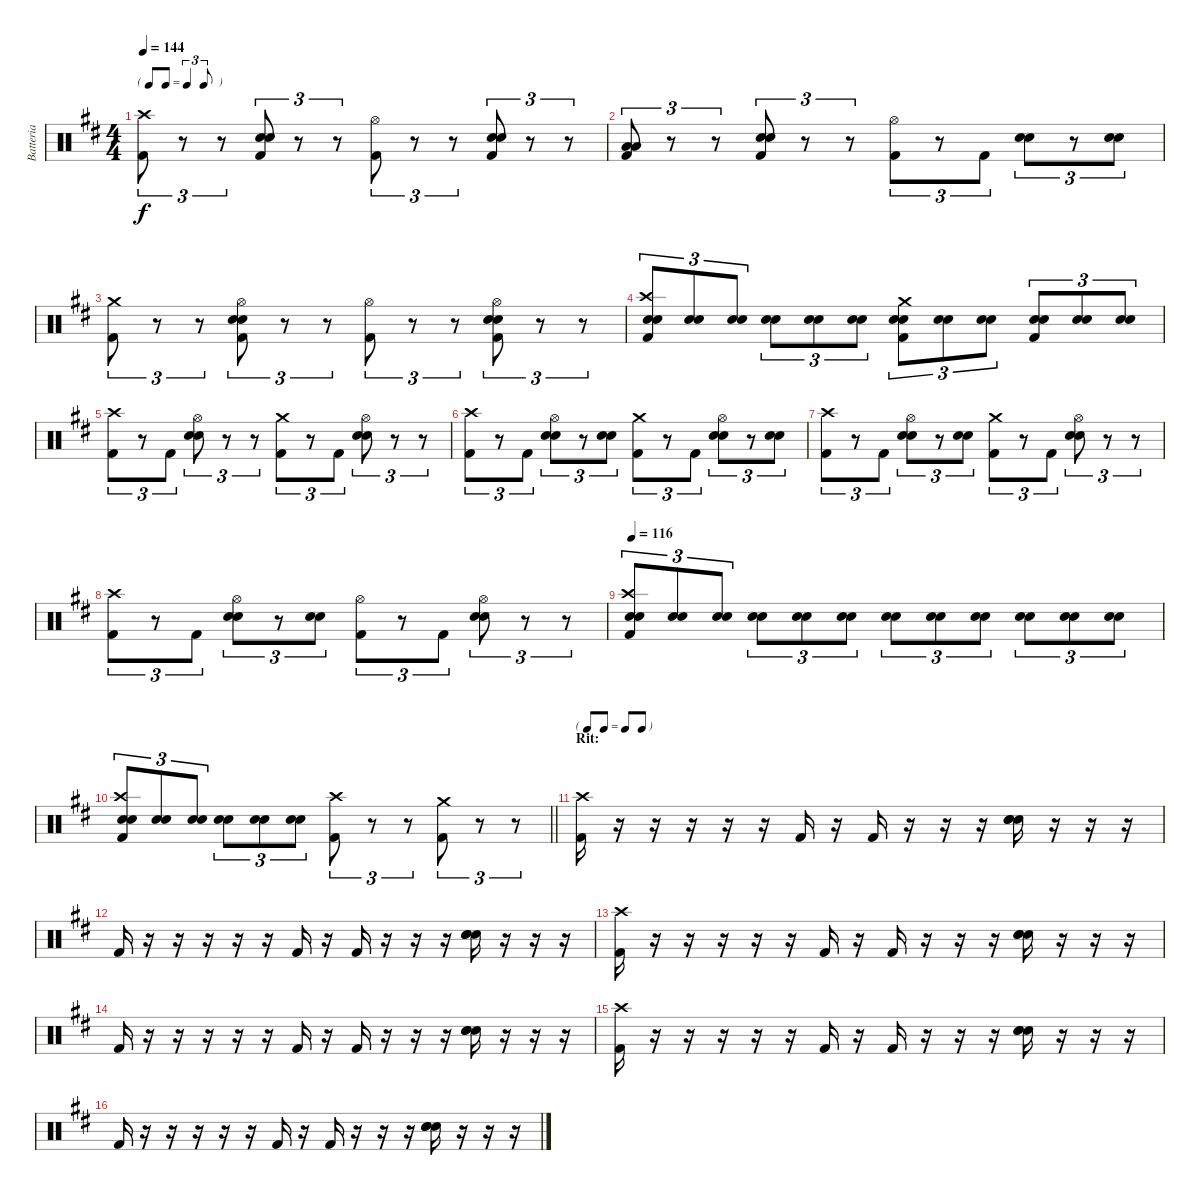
\track ("Batteria" "Batteria") {instrument percussion}
\staff {score}
\articulation defaults
\ts (4 4)
\tf triplet8th
\tempo 144
\clef neutral
\ks d
("Kick (hit) 2" "Crash high (hit)").8{tu (3 2) dy f} r.8{tu (3 2)} r.8{tu (3 2)} ("Kick (hit) 2" "Snare (hit) 2" "Snare (hit) 2").8{tu (3 2)} r.8{tu (3 2)} r.8{tu (3 2)} ("Kick (hit) 2" "Hi-Hat (open)").8{tu (3 2)} r.8{tu (3 2)} r.8{tu (3 2)} ("Kick (hit) 2" "Snare (hit) 2" "Snare (hit) 2").8{tu (3 2)} r.8{tu (3 2)} r.8{tu (3 2)} |
("Kick (hit) 2" "Low Floor Tom (hit)" "Low Floor Tom (hit)").8{tu (3 2)} r.8{tu (3 2)} r.8{tu (3 2)} ("Kick (hit) 2" "Snare (hit) 2" "Snare (hit) 2").8{tu (3 2)} r.8{tu (3 2)} r.8{tu (3 2)} ("Kick (hit) 2" "Hi-Hat (open)").8{tu (3 2)} r.8{tu (3 2)} "Kick (hit) 2".8{tu (3 2)} ("Snare (hit) 2" "Snare (hit) 2").8{tu (3 2)} r.8{tu (3 2)} ("Snare (hit) 2" "Snare (hit) 2").8{tu (3 2)} |
("Kick (hit) 2" "Crash medium (hit)").8{tu (3 2)} r.8{tu (3 2)} r.8{tu (3 2)} ("Kick (hit) 2" "Snare (hit) 2" "Snare (hit) 2" "Hi-Hat (open)").8{tu (3 2)} r.8{tu (3 2)} r.8{tu (3 2)} ("Kick (hit) 2" "Hi-Hat (open)").8{tu (3 2)} r.8{tu (3 2)} r.8{tu (3 2)} ("Kick (hit) 2" "Snare (hit) 2" "Snare (hit) 2" "Hi-Hat (open)").8{tu (3 2)} r.8{tu (3 2)} r.8{tu (3 2)} |
("Kick (hit) 2" "Snare (hit) 2" "Snare (hit) 2" "Crash high (hit)").8{tu (3 2)} ("Snare (hit) 2" "Snare (hit) 2").8{tu (3 2)} ("Snare (hit) 2" "Snare (hit) 2").8{tu (3 2)} ("Snare (hit) 2" "Snare (hit) 2").8{tu (3 2)} ("Snare (hit) 2" "Snare (hit) 2").8{tu (3 2)} ("Snare (hit) 2" "Snare (hit) 2").8{tu (3 2)} ("Kick (hit) 2" "Snare (hit) 2" "Snare (hit) 2" "Crash medium (hit)").8{tu (3 2)} ("Snare (hit) 2" "Snare (hit) 2").8{tu (3 2)} ("Snare (hit) 2" "Snare (hit) 2").8{tu (3 2)} ("Kick (hit) 2" "Snare (hit) 2" "Snare (hit) 2").8{tu (3 2)} ("Snare (hit) 2" "Snare (hit) 2").8{tu (3 2)} ("Snare (hit) 2" "Snare (hit) 2").8{tu (3 2)} |
("Kick (hit) 2" "Crash high (hit)").8{tu (3 2)} r.8{tu (3 2)} "Kick (hit) 2".8{tu (3 2)} ("Snare (hit) 2" "Snare (hit) 2" "Hi-Hat (open)").8{tu (3 2)} r.8{tu (3 2)} r.8{tu (3 2)} ("Kick (hit) 2" "Crash medium (hit)").8{tu (3 2)} r.8{tu (3 2)} "Kick (hit) 2".8{tu (3 2)} ("Snare (hit) 2" "Snare (hit) 2" "Hi-Hat (open)").8{tu (3 2)} r.8{tu (3 2)} r.8{tu (3 2)} |
("Kick (hit) 2" "Crash high (hit)").8{tu (3 2)} r.8{tu (3 2)} "Kick (hit) 2".8{tu (3 2)} ("Snare (hit) 2" "Snare (hit) 2" "Hi-Hat (open)").8{tu (3 2)} r.8{tu (3 2)} ("Snare (hit) 2" "Snare (hit) 2").8{tu (3 2)} ("Kick (hit) 2" "Crash medium (hit)").8{tu (3 2)} r.8{tu (3 2)} "Kick (hit) 2".8{tu (3 2)} ("Snare (hit) 2" "Snare (hit) 2" "Hi-Hat (open)").8{tu (3 2)} r.8{tu (3 2)} ("Snare (hit) 2" "Snare (hit) 2").8{tu (3 2)} |
("Kick (hit) 2" "Crash high (hit)").8{tu (3 2)} r.8{tu (3 2)} "Kick (hit) 2".8{tu (3 2)} ("Snare (hit) 2" "Snare (hit) 2" "Hi-Hat (open)").8{tu (3 2)} r.8{tu (3 2)} ("Snare (hit) 2" "Snare (hit) 2").8{tu (3 2)} ("Kick (hit) 2" "Crash medium (hit)").8{tu (3 2)} r.8{tu (3 2)} "Kick (hit) 2".8{tu (3 2)} ("Snare (hit) 2" "Snare (hit) 2" "Hi-Hat (open)").8{tu (3 2)} r.8{tu (3 2)} r.8{tu (3 2)} |
("Kick (hit) 2" "Crash high (hit)").8{tu (3 2)} r.8{tu (3 2)} "Kick (hit) 2".8{tu (3 2)} ("Snare (hit) 2" "Snare (hit) 2" "Hi-Hat (open)").8{tu (3 2)} r.8{tu (3 2)} ("Snare (hit) 2" "Snare (hit) 2").8{tu (3 2)} ("Kick (hit) 2" "Hi-Hat (open)").8{tu (3 2)} r.8{tu (3 2)} "Kick (hit) 2".8{tu (3 2)} ("Snare (hit) 2" "Snare (hit) 2" "Hi-Hat (open)").8{tu (3 2)} r.8{tu (3 2)} r.8{tu (3 2)} |
\tempo 116
("Kick (hit) 2" "Snare (hit) 2" "Snare (hit) 2" "Crash high (hit)").8{tu (3 2)} ("Snare (hit) 2" "Snare (hit) 2").8{tu (3 2)} ("Snare (hit) 2" "Snare (hit) 2").8{tu (3 2)} ("Snare (hit) 2" "Snare (hit) 2").8{tu (3 2)} ("Snare (hit) 2" "Snare (hit) 2").8{tu (3 2)} ("Snare (hit) 2" "Snare (hit) 2").8{tu (3 2)} ("Snare (hit) 2" "Snare (hit) 2").8{tu (3 2)} ("Snare (hit) 2" "Snare (hit) 2").8{tu (3 2)} ("Snare (hit) 2" "Snare (hit) 2").8{tu (3 2)} ("Snare (hit) 2" "Snare (hit) 2").8{tu (3 2)} ("Snare (hit) 2" "Snare (hit) 2").8{tu (3 2)} ("Snare (hit) 2" "Snare (hit) 2").8{tu (3 2)} |
\barLineRight lightlight
("Kick (hit) 2" "Snare (hit) 2" "Snare (hit) 2" "Crash high (hit)").8{tu (3 2)} ("Snare (hit) 2" "Snare (hit) 2").8{tu (3 2)} ("Snare (hit) 2" "Snare (hit) 2").8{tu (3 2)} ("Snare (hit) 2" "Snare (hit) 2").8{tu (3 2)} ("Snare (hit) 2" "Snare (hit) 2").8{tu (3 2)} ("Snare (hit) 2" "Snare (hit) 2").8{tu (3 2)} ("Kick (hit) 2" "Crash high (hit)").8{tu (3 2)} r.8{tu (3 2)} r.8{tu (3 2)} ("Kick (hit) 2" "Crash medium (hit)").8{tu (3 2)} r.8{tu (3 2)} r.8{tu (3 2)} |
\tf none
\section ("" "Rit:")
("Kick (hit) 2" "Crash high (hit)").16 r.16 r.16 r.16 r.16 r.16 "Kick (hit) 2".16 r.16 "Kick (hit) 2".16 r.16 r.16 r.16 ("Snare (hit) 2" "Hand Clap (hit)" "Hand Clap (hit)").16 r.16 r.16 r.16 |
"Kick (hit) 2".16 r.16 r.16 r.16 r.16 r.16 "Kick (hit) 2".16 r.16 "Kick (hit) 2".16 r.16 r.16 r.16 ("Snare (hit) 2" "Hand Clap (hit)" "Hand Clap (hit)").16 r.16 r.16 r.16 |
("Kick (hit) 2" "Crash high (hit)").16 r.16 r.16 r.16 r.16 r.16 "Kick (hit) 2".16 r.16 "Kick (hit) 2".16 r.16 r.16 r.16 ("Snare (hit) 2" "Hand Clap (hit)" "Hand Clap (hit)").16 r.16 r.16 r.16 |
"Kick (hit) 2".16 r.16 r.16 r.16 r.16 r.16 "Kick (hit) 2".16 r.16 "Kick (hit) 2".16 r.16 r.16 r.16 ("Snare (hit) 2" "Hand Clap (hit)" "Hand Clap (hit)").16 r.16 r.16 r.16 |
("Kick (hit) 2" "Crash high (hit)").16 r.16 r.16 r.16 r.16 r.16 "Kick (hit) 2".16 r.16 "Kick (hit) 2".16 r.16 r.16 r.16 ("Snare (hit) 2" "Hand Clap (hit)" "Hand Clap (hit)").16 r.16 r.16 r.16 |
"Kick (hit) 2".16 r.16 r.16 r.16 r.16 r.16 "Kick (hit) 2".16 r.16 "Kick (hit) 2".16 r.16 r.16 r.16 ("Snare (hit) 2" "Hand Clap (hit)" "Hand Clap (hit)").16 r.16 r.16 r.16
